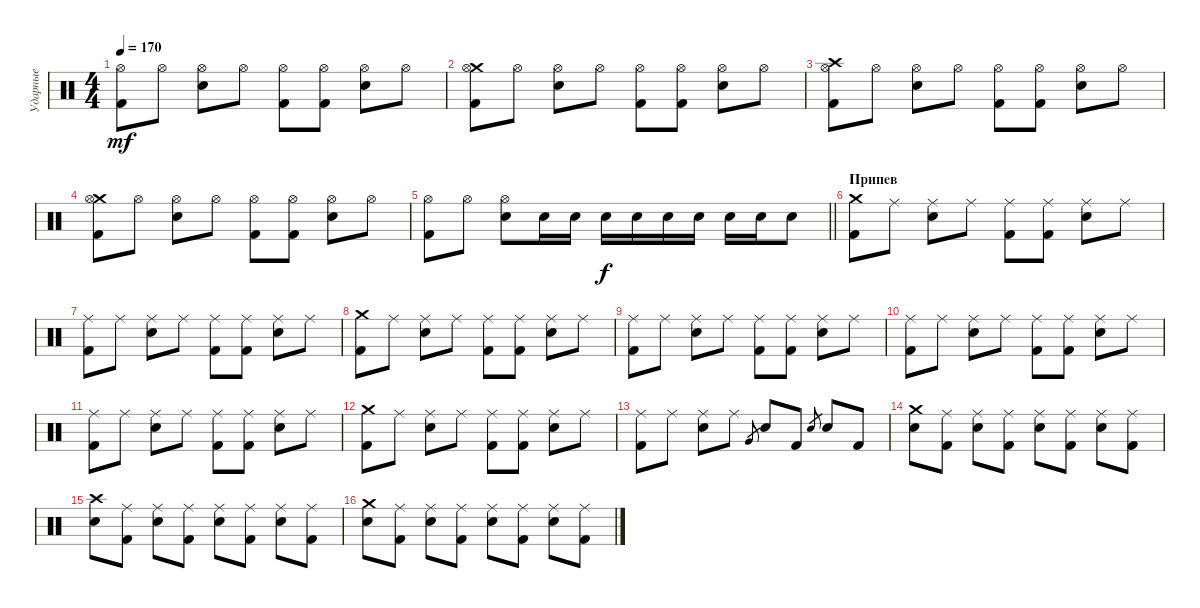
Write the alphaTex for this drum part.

\track ("Ударные" "Ударные") {instrument percussion}
\staff {score}
\articulation defaults
\ts (4 4)
\tempo 170
\clef neutral
\ks c
("Hi-Hat (open)" "Kick (hit) 2").8{dy mf} "Hi-Hat (open)".8 ("Hi-Hat (open)" "Snare (hit) 2").8 "Hi-Hat (open)".8 ("Hi-Hat (open)" "Kick (hit) 2").8 ("Hi-Hat (open)" "Kick (hit) 2").8 ("Hi-Hat (open)" "Snare (hit) 2").8 "Hi-Hat (open)".8 |
("Crash medium (hit)" "Hi-Hat (open)" "Kick (hit) 2").8 "Hi-Hat (open)".8 ("Hi-Hat (open)" "Snare (hit) 2").8 "Hi-Hat (open)".8 ("Hi-Hat (open)" "Kick (hit) 2").8 ("Hi-Hat (open)" "Kick (hit) 2").8 ("Hi-Hat (open)" "Snare (hit) 2").8 "Hi-Hat (open)".8 |
("Crash high (hit)" "Hi-Hat (open)" "Kick (hit) 2").8 "Hi-Hat (open)".8 ("Hi-Hat (open)" "Snare (hit) 2").8 "Hi-Hat (open)".8 ("Hi-Hat (open)" "Kick (hit) 2").8 ("Hi-Hat (open)" "Kick (hit) 2").8 ("Hi-Hat (open)" "Snare (hit) 2").8 "Hi-Hat (open)".8 |
("Crash medium (hit)" "Hi-Hat (open)" "Kick (hit) 2").8 "Hi-Hat (open)".8 ("Hi-Hat (open)" "Snare (hit) 2").8 "Hi-Hat (open)".8 ("Hi-Hat (open)" "Kick (hit) 2").8 ("Hi-Hat (open)" "Kick (hit) 2").8 ("Hi-Hat (open)" "Snare (hit) 2").8 "Hi-Hat (open)".8 |
\barLineRight lightlight
("Hi-Hat (open)" "Kick (hit) 2").8 "Hi-Hat (open)".8 ("Hi-Hat (open)" "Snare (hit) 2").8 "Snare (hit) 2".16 "Snare (hit) 2".16 "Snare (hit) 2".16{dy f} "Snare (hit) 2".16 "Snare (hit) 2".16 "Snare (hit) 2".16 "Snare (hit) 2".16 "Snare (hit) 2".16 "Snare (hit) 2".8 |
\section ("" "Припев")
("Crash medium (hit)" "Kick (hit) 2").8 "Ride (middle)".8 ("Ride (middle)" "Snare (hit) 2").8 "Ride (middle)".8 ("Ride (middle)" "Kick (hit) 2").8 ("Ride (middle)" "Kick (hit) 2").8 ("Ride (middle)" "Snare (hit) 2").8 "Ride (middle)".8 |
("Ride (middle)" "Kick (hit) 2").8 "Ride (middle)".8 ("Ride (middle)" "Snare (hit) 2").8 "Ride (middle)".8 ("Ride (middle)" "Kick (hit) 2").8 ("Ride (middle)" "Kick (hit) 2").8 ("Ride (middle)" "Snare (hit) 2").8 "Ride (middle)".8 |
("Crash medium (hit)" "Kick (hit) 2").8 "Ride (middle)".8 ("Ride (middle)" "Snare (hit) 2").8 "Ride (middle)".8 ("Ride (middle)" "Kick (hit) 2").8 ("Ride (middle)" "Kick (hit) 2").8 ("Ride (middle)" "Snare (hit) 2").8 "Ride (middle)".8 |
("Ride (middle)" "Kick (hit) 2").8 "Ride (middle)".8 ("Ride (middle)" "Snare (hit) 2").8 "Ride (middle)".8 ("Ride (middle)" "Kick (hit) 2").8 ("Ride (middle)" "Kick (hit) 2").8 ("Ride (middle)" "Snare (hit) 2").8 "Ride (middle)".8 |
("Ride (middle)" "Kick (hit) 2").8 "Ride (middle)".8 ("Ride (middle)" "Snare (hit) 2").8 "Ride (middle)".8 ("Ride (middle)" "Kick (hit) 2").8 ("Ride (middle)" "Kick (hit) 2").8 ("Ride (middle)" "Snare (hit) 2").8 "Ride (middle)".8 |
("Ride (middle)" "Kick (hit) 2").8 "Ride (middle)".8 ("Ride (middle)" "Snare (hit) 2").8 "Ride (middle)".8 ("Ride (middle)" "Kick (hit) 2").8 ("Ride (middle)" "Kick (hit) 2").8 ("Ride (middle)" "Snare (hit) 2").8 "Ride (middle)".8 |
("Crash medium (hit)" "Kick (hit) 2").8 "Ride (middle)".8 ("Ride (middle)" "Snare (hit) 2").8 "Ride (middle)".8 ("Ride (middle)" "Kick (hit) 2").8 ("Ride (middle)" "Kick (hit) 2").8 ("Ride (middle)" "Snare (hit) 2").8 "Ride (middle)".8 |
("Ride (middle)" "Kick (hit) 2").8 "Ride (middle)".8 ("Ride (middle)" "Snare (hit) 2").8 "Ride (middle)".8 "Very Low Tom (hit)".8{gr} "Snare (hit) 2".8 "Kick (hit) 2".8 "Snare (hit) 2".8{gr} "Snare (hit) 2".8 "Kick (hit) 2".8 |
("Crash medium (hit)" "Snare (hit) 2").8 ("Ride (middle)" "Kick (hit) 2").8 ("Ride (middle)" "Snare (hit) 2").8 ("Ride (middle)" "Kick (hit) 2").8 ("Ride (middle)" "Snare (hit) 2").8 ("Ride (middle)" "Kick (hit) 2").8 ("Ride (middle)" "Snare (hit) 2").8 ("Ride (middle)" "Kick (hit) 2").8 |
("Crash high (hit)" "Snare (hit) 2").8 ("Ride (middle)" "Kick (hit) 2").8 ("Ride (middle)" "Snare (hit) 2").8 ("Ride (middle)" "Kick (hit) 2").8 ("Ride (middle)" "Snare (hit) 2").8 ("Ride (middle)" "Kick (hit) 2").8 ("Ride (middle)" "Snare (hit) 2").8 ("Ride (middle)" "Kick (hit) 2").8 |
("Crash medium (hit)" "Snare (hit) 2").8 ("Ride (middle)" "Kick (hit) 2").8 ("Ride (middle)" "Snare (hit) 2").8 ("Ride (middle)" "Kick (hit) 2").8 ("Ride (middle)" "Snare (hit) 2").8 ("Ride (middle)" "Kick (hit) 2").8 ("Ride (middle)" "Snare (hit) 2").8 ("Ride (middle)" "Kick (hit) 2").8
